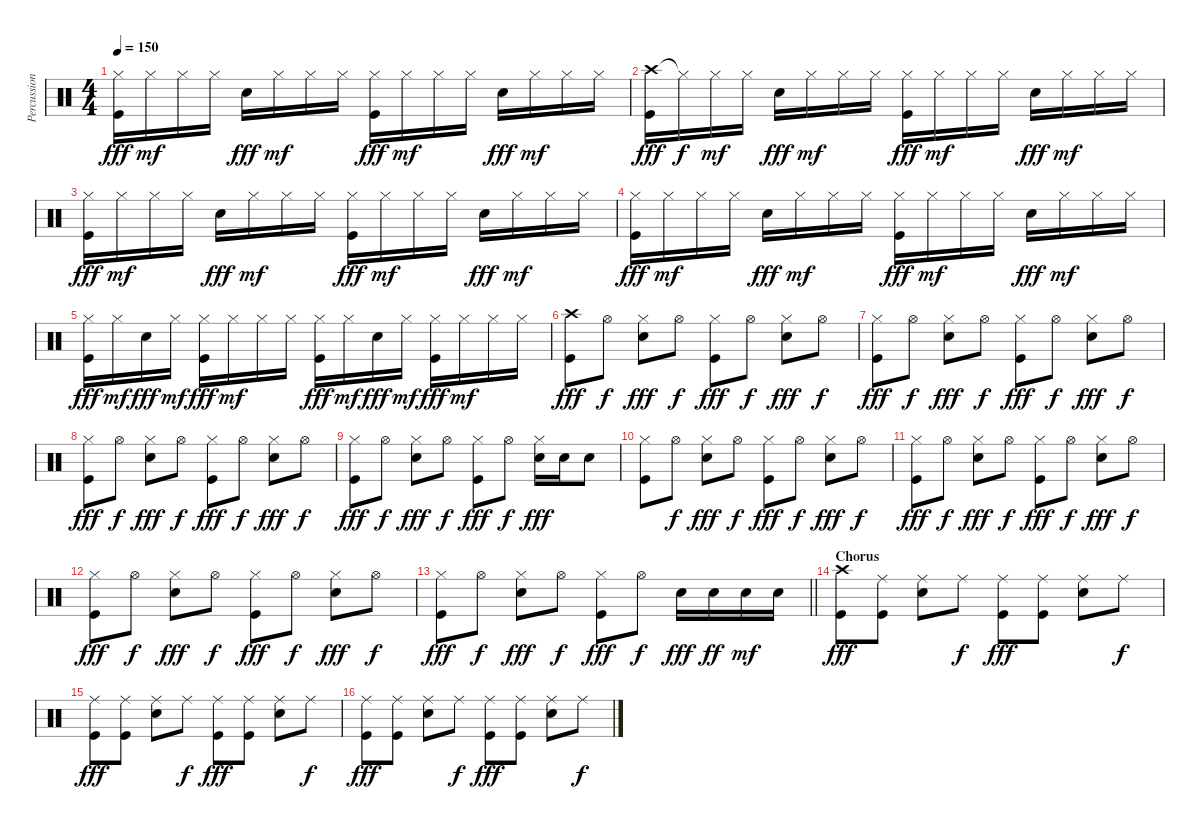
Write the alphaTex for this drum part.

\track ("Percussion" "Percussion") {instrument percussion}
\staff {score}
\articulation defaults
\ts (4 4)
\tempo 150
\clef neutral
\ks c
("Hi-Hat (closed)" "Kick (hit)").16{dy fff} "Hi-Hat (closed)".16{dy mf} "Hi-Hat (closed)".16 "Hi-Hat (closed)".16 "Electric Snare (hit)".16{dy fff} "Hi-Hat (closed)".16{dy mf} "Hi-Hat (closed)".16 "Hi-Hat (closed)".16 ("Hi-Hat (closed)" "Kick (hit)").16{dy fff} "Hi-Hat (closed)".16{dy mf} "Hi-Hat (closed)".16 "Hi-Hat (closed)".16 "Electric Snare (hit)".16{dy fff} "Hi-Hat (closed)".16{dy mf} "Hi-Hat (closed)".16 "Hi-Hat (closed)".16 |
("Crash high (hit)" "Kick (hit)").16{dy fff} "Hi-Hat (closed)"{t}.16{dy f} "Hi-Hat (closed)".16{dy mf} "Hi-Hat (closed)".16 "Electric Snare (hit)".16{dy fff} "Hi-Hat (closed)".16{dy mf} "Hi-Hat (closed)".16 "Hi-Hat (closed)".16 ("Hi-Hat (closed)" "Kick (hit)").16{dy fff} "Hi-Hat (closed)".16{dy mf} "Hi-Hat (closed)".16 "Hi-Hat (closed)".16 "Electric Snare (hit)".16{dy fff} "Hi-Hat (closed)".16{dy mf} "Hi-Hat (closed)".16 "Hi-Hat (closed)".16 |
("Hi-Hat (closed)" "Kick (hit)").16{dy fff} "Hi-Hat (closed)".16{dy mf} "Hi-Hat (closed)".16 "Hi-Hat (closed)".16 "Electric Snare (hit)".16{dy fff} "Hi-Hat (closed)".16{dy mf} "Hi-Hat (closed)".16 "Hi-Hat (closed)".16 ("Hi-Hat (closed)" "Kick (hit)").16{dy fff} "Hi-Hat (closed)".16{dy mf} "Hi-Hat (closed)".16 "Hi-Hat (closed)".16 "Electric Snare (hit)".16{dy fff} "Hi-Hat (closed)".16{dy mf} "Hi-Hat (closed)".16 "Hi-Hat (closed)".16 |
("Hi-Hat (closed)" "Kick (hit)").16{dy fff} "Hi-Hat (closed)".16{dy mf} "Hi-Hat (closed)".16 "Hi-Hat (closed)".16 "Electric Snare (hit)".16{dy fff} "Hi-Hat (closed)".16{dy mf} "Hi-Hat (closed)".16 "Hi-Hat (closed)".16 ("Hi-Hat (closed)" "Kick (hit)").16{dy fff} "Hi-Hat (closed)".16{dy mf} "Hi-Hat (closed)".16 "Hi-Hat (closed)".16 "Electric Snare (hit)".16{dy fff} "Hi-Hat (closed)".16{dy mf} "Hi-Hat (closed)".16 "Hi-Hat (closed)".16 |
("Hi-Hat (closed)" "Kick (hit)").16{dy fff} "Hi-Hat (closed)".16{dy mf} "Electric Snare (hit)".16{dy fff} "Hi-Hat (closed)".16{dy mf} ("Hi-Hat (closed)" "Kick (hit)").16{dy fff} "Hi-Hat (closed)".16{dy mf} "Hi-Hat (closed)".16 "Hi-Hat (closed)".16 ("Hi-Hat (closed)" "Kick (hit)").16{dy fff} "Hi-Hat (closed)".16{dy mf} "Electric Snare (hit)".16{dy fff} "Hi-Hat (closed)".16{dy mf} ("Hi-Hat (closed)" "Kick (hit)").16{dy fff} "Hi-Hat (closed)".16{dy mf} "Hi-Hat (closed)".16 "Hi-Hat (closed)".16 |
("Crash high (hit)" "Kick (hit)").8{dy fff} "Hi-Hat (open)".8{dy f} ("Hi-Hat (closed)" "Electric Snare (hit)").8{dy fff} "Hi-Hat (open)".8{dy f} ("Hi-Hat (closed)" "Kick (hit)").8{dy fff} "Hi-Hat (open)".8{dy f} ("Hi-Hat (closed)" "Electric Snare (hit)").8{dy fff} "Hi-Hat (open)".8{dy f} |
("Hi-Hat (closed)" "Kick (hit)").8{dy fff} "Hi-Hat (open)".8{dy f} ("Hi-Hat (closed)" "Electric Snare (hit)").8{dy fff} "Hi-Hat (open)".8{dy f} ("Hi-Hat (closed)" "Kick (hit)").8{dy fff} "Hi-Hat (open)".8{dy f} ("Hi-Hat (closed)" "Electric Snare (hit)").8{dy fff} "Hi-Hat (open)".8{dy f} |
("Hi-Hat (closed)" "Kick (hit)").8{dy fff} "Hi-Hat (open)".8{dy f} ("Hi-Hat (closed)" "Electric Snare (hit)").8{dy fff} "Hi-Hat (open)".8{dy f} ("Hi-Hat (closed)" "Kick (hit)").8{dy fff} "Hi-Hat (open)".8{dy f} ("Hi-Hat (closed)" "Electric Snare (hit)").8{dy fff} "Hi-Hat (open)".8{dy f} |
("Hi-Hat (closed)" "Kick (hit)").8{dy fff} "Hi-Hat (open)".8{dy f} ("Hi-Hat (closed)" "Electric Snare (hit)").8{dy fff} "Hi-Hat (open)".8{dy f} ("Hi-Hat (closed)" "Kick (hit)").8{dy fff} "Hi-Hat (open)".8{dy f} ("Hi-Hat (closed)" "Electric Snare (hit)").16{dy fff} "Electric Snare (hit)".16 "Electric Snare (hit)".8 |
("Hi-Hat (closed)" "Kick (hit)").8 "Hi-Hat (open)".8{dy f} ("Hi-Hat (closed)" "Electric Snare (hit)").8{dy fff} "Hi-Hat (open)".8{dy f} ("Hi-Hat (closed)" "Kick (hit)").8{dy fff} "Hi-Hat (open)".8{dy f} ("Hi-Hat (closed)" "Electric Snare (hit)").8{dy fff} "Hi-Hat (open)".8{dy f} |
("Hi-Hat (closed)" "Kick (hit)").8{dy fff} "Hi-Hat (open)".8{dy f} ("Hi-Hat (closed)" "Electric Snare (hit)").8{dy fff} "Hi-Hat (open)".8{dy f} ("Hi-Hat (closed)" "Kick (hit)").8{dy fff} "Hi-Hat (open)".8{dy f} ("Hi-Hat (closed)" "Electric Snare (hit)").8{dy fff} "Hi-Hat (open)".8{dy f} |
("Hi-Hat (closed)" "Kick (hit)").8{dy fff} "Hi-Hat (open)".8{dy f} ("Hi-Hat (closed)" "Electric Snare (hit)").8{dy fff} "Hi-Hat (open)".8{dy f} ("Hi-Hat (closed)" "Kick (hit)").8{dy fff} "Hi-Hat (open)".8{dy f} ("Hi-Hat (closed)" "Electric Snare (hit)").8{dy fff} "Hi-Hat (open)".8{dy f} |
\barLineRight lightlight
("Hi-Hat (closed)" "Kick (hit)").8{dy fff} "Hi-Hat (open)".8{dy f} ("Hi-Hat (closed)" "Electric Snare (hit)").8{dy fff} "Hi-Hat (open)".8{dy f} ("Hi-Hat (closed)" "Kick (hit)").8{dy fff} "Hi-Hat (open)".8{dy f} "Electric Snare (hit)".16{dy fff} "Electric Snare (hit)".16{dy ff} "Electric Snare (hit)".16{dy mf} "Electric Snare (hit)".16 |
\section ("" "Chorus")
("Crash high (hit)" "Kick (hit)").8{dy fff} ("Ride (middle)" "Kick (hit)").8 ("Ride (middle)" "Electric Snare (hit)").8 "Ride (middle)".8{dy f} ("Ride (middle)" "Kick (hit)").8{dy fff} ("Ride (middle)" "Kick (hit)").8 ("Ride (middle)" "Electric Snare (hit)").8 "Ride (middle)".8{dy f} |
("Ride (middle)" "Kick (hit)").8{dy fff} ("Ride (middle)" "Kick (hit)").8 ("Ride (middle)" "Electric Snare (hit)").8 "Ride (middle)".8{dy f} ("Ride (middle)" "Kick (hit)").8{dy fff} ("Ride (middle)" "Kick (hit)").8 ("Ride (middle)" "Electric Snare (hit)").8 "Ride (middle)".8{dy f} |
("Ride (middle)" "Kick (hit)").8{dy fff} ("Ride (middle)" "Kick (hit)").8 ("Ride (middle)" "Electric Snare (hit)").8 "Ride (middle)".8{dy f} ("Ride (middle)" "Kick (hit)").8{dy fff} ("Ride (middle)" "Kick (hit)").8 ("Ride (middle)" "Electric Snare (hit)").8 "Ride (middle)".8{dy f}
